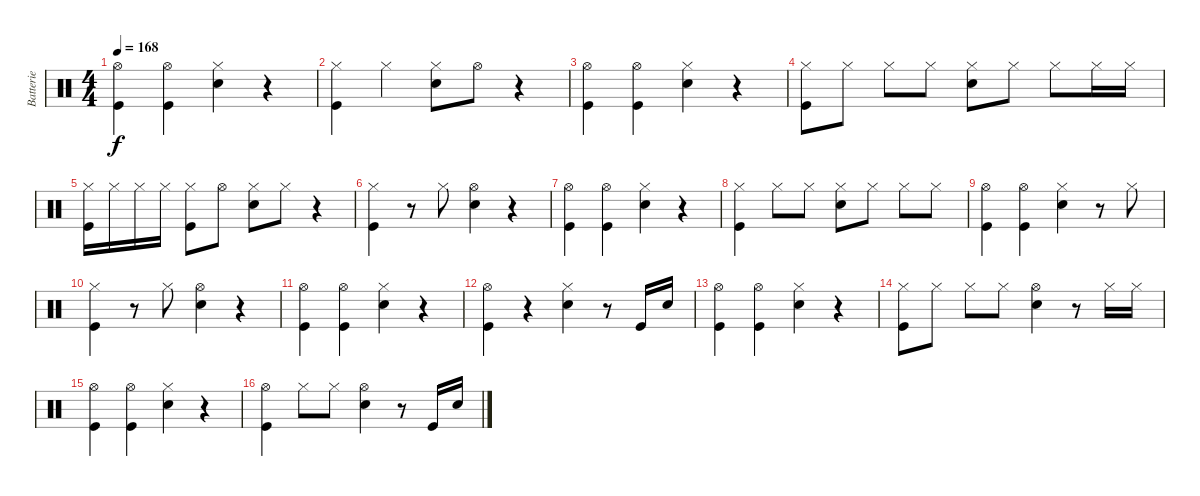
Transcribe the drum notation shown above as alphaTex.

\track ("Batterie" "Batterie") {instrument percussion}
\staff {score}
\articulation defaults
\ts (4 4)
\tempo 168
\clef neutral
\ks c
("Hi-Hat (open)" "Kick (hit)").4{dy f} ("Hi-Hat (open)" "Kick (hit)").4 ("Hi-Hat (closed)" "Snare (hit) 2").4 r.4 |
("Hi-Hat (closed)" "Kick (hit)").4 "Hi-Hat (closed)".4 ("Hi-Hat (closed)" "Snare (hit) 2").8 "Hi-Hat (open)".8 r.4 |
("Hi-Hat (open)" "Kick (hit)").4 ("Hi-Hat (open)" "Kick (hit)").4 ("Hi-Hat (closed)" "Snare (hit) 2").4 r.4 |
("Hi-Hat (closed)" "Kick (hit)").8 "Hi-Hat (closed)".8 "Hi-Hat (closed)".8 "Hi-Hat (closed)".8 ("Hi-Hat (closed)" "Snare (hit) 2").8 "Hi-Hat (closed)".8 "Hi-Hat (closed)".8 "Hi-Hat (closed)".16 "Hi-Hat (closed)".16 |
("Hi-Hat (closed)" "Kick (hit)").16 "Hi-Hat (closed)".16 "Hi-Hat (closed)".16 "Hi-Hat (closed)".16 ("Hi-Hat (closed)" "Kick (hit)").8 "Hi-Hat (open)".8 ("Hi-Hat (closed)" "Snare (hit) 2").8 "Hi-Hat (closed)".8 r.4 |
("Hi-Hat (closed)" "Kick (hit)").4 r.8 "Hi-Hat (closed)".8 ("Hi-Hat (open)" "Snare (hit) 2").4 r.4 |
("Hi-Hat (open)" "Kick (hit)").4 ("Hi-Hat (open)" "Kick (hit)").4 ("Hi-Hat (closed)" "Snare (hit) 2").4 r.4 |
("Hi-Hat (closed)" "Kick (hit)").4 "Hi-Hat (closed)".8 "Hi-Hat (closed)".8 ("Hi-Hat (closed)" "Snare (hit) 2").8 "Hi-Hat (closed)".8 "Hi-Hat (closed)".8 "Hi-Hat (closed)".8 |
("Hi-Hat (open)" "Kick (hit)").4 ("Hi-Hat (open)" "Kick (hit)").4 ("Hi-Hat (closed)" "Snare (hit) 2").4 r.8 "Hi-Hat (closed)".8 |
("Hi-Hat (closed)" "Kick (hit)").4 r.8 "Hi-Hat (closed)".8 ("Hi-Hat (open)" "Snare (hit) 2").4 r.4 |
("Hi-Hat (open)" "Kick (hit)").4 ("Hi-Hat (open)" "Kick (hit)").4 ("Hi-Hat (closed)" "Snare (hit) 2").4 r.4 |
("Hi-Hat (open)" "Kick (hit)").4 r.4 ("Hi-Hat (closed)" "Snare (hit) 2").4 r.8 "Kick (hit)".16 "Snare (hit) 2".16 |
("Hi-Hat (open)" "Kick (hit)").4 ("Hi-Hat (open)" "Kick (hit)").4 ("Hi-Hat (closed)" "Snare (hit) 2").4 r.4 |
("Hi-Hat (closed)" "Kick (hit)").8 "Hi-Hat (closed)".8 "Hi-Hat (closed)".8 "Hi-Hat (closed)".8 ("Hi-Hat (open)" "Snare (hit) 2").4 r.8 "Hi-Hat (closed)".16 "Hi-Hat (closed)".16 |
("Hi-Hat (open)" "Kick (hit)").4 ("Hi-Hat (open)" "Kick (hit)").4 ("Hi-Hat (closed)" "Snare (hit) 2").4 r.4 |
("Hi-Hat (open)" "Kick (hit)").4 "Hi-Hat (closed)".8 "Hi-Hat (closed)".8 ("Hi-Hat (open)" "Snare (hit) 2").4 r.8 "Kick (hit)".16 "Snare (hit) 2".16
